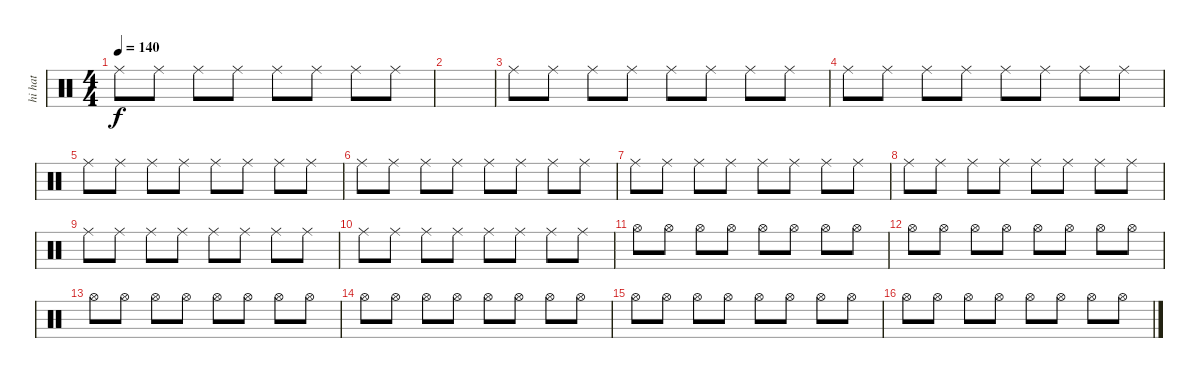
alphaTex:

\track ("hi hat" "hi hat") {instrument percussion}
\staff {score}
\articulation defaults
\ts (4 4)
\tempo 140
\clef neutral
\ks c "Ride (middle)".8{dy f} "Ride (middle)".8 "Ride (middle)".8 "Ride (middle)".8 "Ride (middle)".8 "Ride (middle)".8 "Ride (middle)".8 "Ride (middle)".8
|
|
"Ride (middle)".8 "Ride (middle)".8 "Ride (middle)".8 "Ride (middle)".8 "Ride (middle)".8 "Ride (middle)".8 "Ride (middle)".8 "Ride (middle)".8 |
"Ride (middle)".8 "Ride (middle)".8 "Ride (middle)".8 "Ride (middle)".8 "Ride (middle)".8 "Ride (middle)".8 "Ride (middle)".8 "Ride (middle)".8 |
"Ride (middle)".8 "Ride (middle)".8 "Ride (middle)".8 "Ride (middle)".8 "Ride (middle)".8 "Ride (middle)".8 "Ride (middle)".8 "Ride (middle)".8 |
"Ride (middle)".8 "Ride (middle)".8 "Ride (middle)".8 "Ride (middle)".8 "Ride (middle)".8 "Ride (middle)".8 "Ride (middle)".8 "Ride (middle)".8 |
"Ride (middle)".8 "Ride (middle)".8 "Ride (middle)".8 "Ride (middle)".8 "Ride (middle)".8 "Ride (middle)".8 "Ride (middle)".8 "Ride (middle)".8 |
"Ride (middle)".8 "Ride (middle)".8 "Ride (middle)".8 "Ride (middle)".8 "Ride (middle)".8 "Ride (middle)".8 "Ride (middle)".8 "Ride (middle)".8 |
"Ride (middle)".8 "Ride (middle)".8 "Ride (middle)".8 "Ride (middle)".8 "Ride (middle)".8 "Ride (middle)".8 "Ride (middle)".8 "Ride (middle)".8 |
"Ride (middle)".8 "Ride (middle)".8 "Ride (middle)".8 "Ride (middle)".8 "Ride (middle)".8 "Ride (middle)".8 "Ride (middle)".8 "Ride (middle)".8 |
"Hi-Hat (open)".8 "Hi-Hat (open)".8 "Hi-Hat (open)".8 "Hi-Hat (open)".8 "Hi-Hat (open)".8 "Hi-Hat (open)".8 "Hi-Hat (open)".8 "Hi-Hat (open)".8 |
"Hi-Hat (open)".8 "Hi-Hat (open)".8 "Hi-Hat (open)".8 "Hi-Hat (open)".8 "Hi-Hat (open)".8 "Hi-Hat (open)".8 "Hi-Hat (open)".8 "Hi-Hat (open)".8 |
"Hi-Hat (open)".8 "Hi-Hat (open)".8 "Hi-Hat (open)".8 "Hi-Hat (open)".8 "Hi-Hat (open)".8 "Hi-Hat (open)".8 "Hi-Hat (open)".8 "Hi-Hat (open)".8 |
"Hi-Hat (open)".8 "Hi-Hat (open)".8 "Hi-Hat (open)".8 "Hi-Hat (open)".8 "Hi-Hat (open)".8 "Hi-Hat (open)".8 "Hi-Hat (open)".8 "Hi-Hat (open)".8 |
"Hi-Hat (open)".8 "Hi-Hat (open)".8 "Hi-Hat (open)".8 "Hi-Hat (open)".8 "Hi-Hat (open)".8 "Hi-Hat (open)".8 "Hi-Hat (open)".8 "Hi-Hat (open)".8 |
"Hi-Hat (open)".8 "Hi-Hat (open)".8 "Hi-Hat (open)".8 "Hi-Hat (open)".8 "Hi-Hat (open)".8 "Hi-Hat (open)".8 "Hi-Hat (open)".8 "Hi-Hat (open)".8
